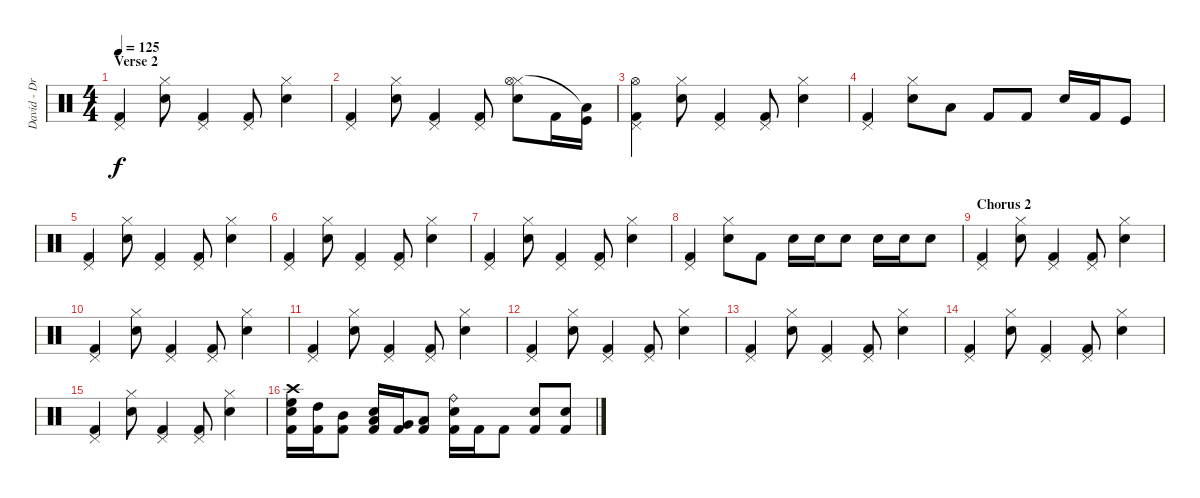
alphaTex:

\track ("David - Drums" "David - Dr") {instrument percussion}
\staff {score}
\articulation defaults
\ts (4 4)
\section ("" "Verse 2")
\tempo 125
\clef neutral
\ks c
("Kick (hit) 2" "Pedal Hi-Hat (hit)").4{dy f} ("Snare (hit) 2" "Hi-Hat (closed)").8 ("Kick (hit) 2" "Pedal Hi-Hat (hit)").4 ("Kick (hit) 2" "Pedal Hi-Hat (hit)").8 ("Snare (hit) 2" "Hi-Hat (closed)").4 |
("Kick (hit) 2" "Pedal Hi-Hat (hit)").4 ("Snare (hit) 2" "Hi-Hat (closed)").8 ("Kick (hit) 2" "Pedal Hi-Hat (hit)").4 ("Kick (hit) 2" "Pedal Hi-Hat (hit)").8 ("Snare (hit) 2" "Hi-Hat (closed)" "Hi-Hat (open)").8 "Kick (hit) 2".16 ("Kick (hit)" "Low Floor Tom (hit)"{t}).16 |
("Kick (hit) 2" "Pedal Hi-Hat (hit)" "Hi-Hat (open)").4 ("Snare (hit) 2" "Hi-Hat (closed)").8 ("Kick (hit) 2" "Pedal Hi-Hat (hit)").4 ("Kick (hit) 2" "Pedal Hi-Hat (hit)").8 ("Snare (hit) 2" "Hi-Hat (closed)").4 |
("Kick (hit) 2" "Pedal Hi-Hat (hit)").4 ("Snare (hit) 2" "Hi-Hat (closed)").8 "Low Floor Tom (hit)".8 "Kick (hit) 2".8 "Kick (hit) 2".8 "Snare (hit) 2".16 "Kick (hit) 2".16 "Kick (hit)".8 |
("Kick (hit) 2" "Pedal Hi-Hat (hit)").4 ("Snare (hit) 2" "Hi-Hat (closed)").8 ("Kick (hit) 2" "Pedal Hi-Hat (hit)").4 ("Kick (hit) 2" "Pedal Hi-Hat (hit)").8 ("Snare (hit) 2" "Hi-Hat (closed)").4 |
("Kick (hit) 2" "Pedal Hi-Hat (hit)").4 ("Snare (hit) 2" "Hi-Hat (closed)").8 ("Kick (hit) 2" "Pedal Hi-Hat (hit)").4 ("Kick (hit) 2" "Pedal Hi-Hat (hit)").8 ("Snare (hit) 2" "Hi-Hat (closed)").4 |
("Kick (hit) 2" "Pedal Hi-Hat (hit)").4 ("Snare (hit) 2" "Hi-Hat (closed)").8 ("Kick (hit) 2" "Pedal Hi-Hat (hit)").4 ("Kick (hit) 2" "Pedal Hi-Hat (hit)").8 ("Snare (hit) 2" "Hi-Hat (closed)").4 |
("Kick (hit) 2" "Pedal Hi-Hat (hit)").4 ("Snare (hit) 2" "Hi-Hat (closed)").8 "Kick (hit) 2".8 "Snare (hit) 2".16 "Snare (hit) 2".16 "Snare (hit) 2".8 "Snare (hit) 2".16 "Snare (hit) 2".16 "Snare (hit) 2".8 |
\section ("" "Chorus 2")
("Kick (hit) 2" "Pedal Hi-Hat (hit)").4 ("Snare (hit) 2" "Hi-Hat (closed)").8 ("Kick (hit) 2" "Pedal Hi-Hat (hit)").4 ("Kick (hit) 2" "Pedal Hi-Hat (hit)").8 ("Snare (hit) 2" "Hi-Hat (closed)").4 |
("Kick (hit) 2" "Pedal Hi-Hat (hit)").4 ("Snare (hit) 2" "Hi-Hat (closed)").8 ("Kick (hit) 2" "Pedal Hi-Hat (hit)").4 ("Kick (hit) 2" "Pedal Hi-Hat (hit)").8 ("Snare (hit) 2" "Hi-Hat (closed)").4 |
("Kick (hit) 2" "Pedal Hi-Hat (hit)").4 ("Snare (hit) 2" "Hi-Hat (closed)").8 ("Kick (hit) 2" "Pedal Hi-Hat (hit)").4 ("Kick (hit) 2" "Pedal Hi-Hat (hit)").8 ("Snare (hit) 2" "Hi-Hat (closed)").4 |
("Kick (hit) 2" "Pedal Hi-Hat (hit)").4 ("Snare (hit) 2" "Hi-Hat (closed)").8 ("Kick (hit) 2" "Pedal Hi-Hat (hit)").4 ("Kick (hit) 2" "Pedal Hi-Hat (hit)").8 ("Snare (hit) 2" "Hi-Hat (closed)").4 |
("Kick (hit) 2" "Pedal Hi-Hat (hit)").4 ("Snare (hit) 2" "Hi-Hat (closed)").8 ("Kick (hit) 2" "Pedal Hi-Hat (hit)").4 ("Kick (hit) 2" "Pedal Hi-Hat (hit)").8 ("Snare (hit) 2" "Hi-Hat (closed)").4 |
("Kick (hit) 2" "Pedal Hi-Hat (hit)").4 ("Snare (hit) 2" "Hi-Hat (closed)").8 ("Kick (hit) 2" "Pedal Hi-Hat (hit)").4 ("Kick (hit) 2" "Pedal Hi-Hat (hit)").8 ("Snare (hit) 2" "Hi-Hat (closed)").4 |
("Kick (hit) 2" "Pedal Hi-Hat (hit)").4 ("Snare (hit) 2" "Hi-Hat (closed)").8 ("Kick (hit) 2" "Pedal Hi-Hat (hit)").4 ("Kick (hit) 2" "Pedal Hi-Hat (hit)").8 ("Snare (hit) 2" "Hi-Hat (closed)").4 |
("Kick (hit) 2" "Electric Snare (hit)" "Crash high (hit)" "High Floor Tom (hit)").16 ("Kick (hit) 2" "High Tom (hit)").16 ("Kick (hit) 2" "Mid Tom (hit)").8 ("Kick (hit) 2" "Electric Snare (hit)" "Low Tom (hit)").16 ("Kick (hit) 2" "Very Low Tom (hit)").16 ("Kick (hit) 2" "Low Floor Tom (hit)").8 ("Kick (hit) 2" "Electric Snare (hit)" "Ride (bell)").16 "Kick (hit) 2".16 "Kick (hit) 2".8 ("Kick (hit) 2" "Electric Snare (hit)").8 ("Kick (hit) 2" "Electric Snare (hit)").8
